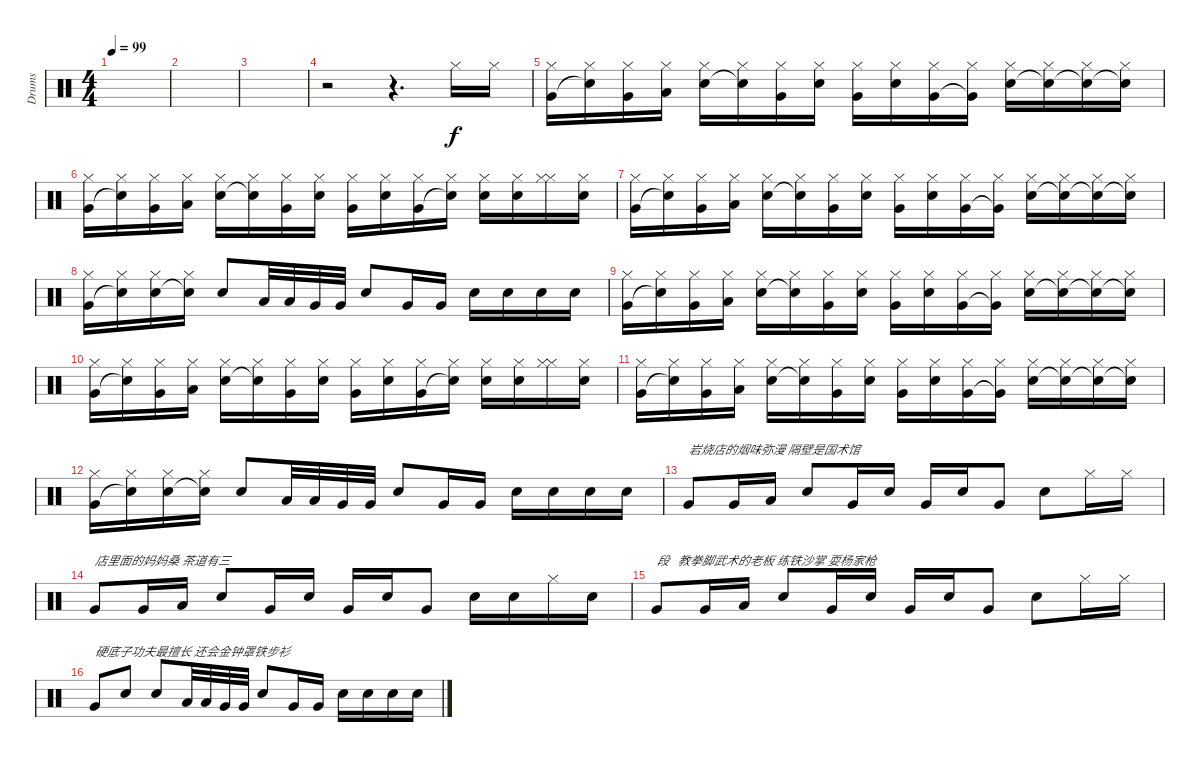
\track ("Drums" "Drums") {instrument percussion}
\staff {score}
\articulation defaults
\ts (4 4)
\tempo 99
\clef neutral
\ks c
|
|
|
r.2 r.4{d} "Hi-Hat (closed)".16 "Hi-Hat (closed)".16 |
("Hi-Hat (closed)" "Very Low Tom (hit)").16 ("Hi-Hat (closed)" "Snare (hit)"{t}).16 ("Hi-Hat (closed)" "Very Low Tom (hit)").16 ("Hi-Hat (closed)" "Low Floor Tom (hit)").16 ("Hi-Hat (closed)" "Snare (hit) 2").16 ("Hi-Hat (closed)" "Snare (hit)"{t}).16 ("Hi-Hat (closed)" "Very Low Tom (hit)").16 ("Hi-Hat (closed)" "Snare (hit) 2").16 ("Hi-Hat (closed)" "Very Low Tom (hit)").16 ("Hi-Hat (closed)" "Snare (hit) 2").16 ("Hi-Hat (closed)" "Very Low Tom (hit)").16 ("Hi-Hat (closed)" "Very Low Tom (hit)"{t}).16 ("Hi-Hat (closed)" "Snare (hit) 2").16 ("Hi-Hat (closed)" "Snare (hit)"{t}).16 ("Hi-Hat (closed)" "Snare (hit)"{t}).16 ("Hi-Hat (closed)" "Snare (hit)"{t}).16 |
("Hi-Hat (closed)" "Very Low Tom (hit)").16 ("Hi-Hat (closed)" "Snare (hit)"{t}).16 ("Hi-Hat (closed)" "Very Low Tom (hit)").16 ("Hi-Hat (closed)" "Low Floor Tom (hit)").16 ("Hi-Hat (closed)" "Snare (hit) 2").16 ("Hi-Hat (closed)" "Snare (hit)"{t}).16 ("Hi-Hat (closed)" "Very Low Tom (hit)").16 ("Hi-Hat (closed)" "Snare (hit) 2").16 ("Hi-Hat (closed)" "Very Low Tom (hit)").16 ("Hi-Hat (closed)" "Snare (hit) 2").16 ("Hi-Hat (closed)" "Very Low Tom (hit)").16 ("Hi-Hat (closed)" "Snare (hit)"{t}).16 ("Hi-Hat (closed)" "Snare (hit) 2").16 ("Hi-Hat (closed)" "Snare (hit) 2").16 ("Hi-Hat (closed)" "Hi-Hat (closed)").16 ("Hi-Hat (closed)" "Snare (hit) 2").16 |
("Hi-Hat (closed)" "Very Low Tom (hit)").16 ("Hi-Hat (closed)" "Snare (hit)"{t}).16 ("Hi-Hat (closed)" "Very Low Tom (hit)").16 ("Hi-Hat (closed)" "Low Floor Tom (hit)").16 ("Hi-Hat (closed)" "Snare (hit) 2").16 ("Hi-Hat (closed)" "Snare (hit)"{t}).16 ("Hi-Hat (closed)" "Very Low Tom (hit)").16 ("Hi-Hat (closed)" "Snare (hit) 2").16 ("Hi-Hat (closed)" "Very Low Tom (hit)").16 ("Hi-Hat (closed)" "Snare (hit) 2").16 ("Hi-Hat (closed)" "Very Low Tom (hit)").16 ("Hi-Hat (closed)" "Very Low Tom (hit)"{t}).16 ("Hi-Hat (closed)" "Snare (hit) 2").16 ("Hi-Hat (closed)" "Snare (hit)"{t}).16 ("Hi-Hat (closed)" "Snare (hit)"{t}).16 ("Hi-Hat (closed)" "Snare (hit)"{t}).16 |
("Hi-Hat (closed)" "Very Low Tom (hit)").16 ("Hi-Hat (closed)" "Snare (hit)"{t}).16 ("Hi-Hat (closed)" "Snare (hit) 2").16 ("Hi-Hat (closed)" "Snare (hit)"{t}).16 "Snare (hit) 2".8 "Low Tom (hit)".32 "Low Tom (hit)".32 "Very Low Tom (hit)".32 "Very Low Tom (hit)".32 "Snare (hit) 2".8 "Very Low Tom (hit)".16 "Very Low Tom (hit)".16 "Snare (hit) 2".16 "Snare (hit) 2".16 "Snare (hit) 2".16 "Snare (hit) 2".16 |
("Hi-Hat (closed)" "Very Low Tom (hit)").16 ("Hi-Hat (closed)" "Snare (hit)"{t}).16 ("Hi-Hat (closed)" "Very Low Tom (hit)").16 ("Hi-Hat (closed)" "Low Floor Tom (hit)").16 ("Hi-Hat (closed)" "Snare (hit) 2").16 ("Hi-Hat (closed)" "Snare (hit)"{t}).16 ("Hi-Hat (closed)" "Very Low Tom (hit)").16 ("Hi-Hat (closed)" "Snare (hit) 2").16 ("Hi-Hat (closed)" "Very Low Tom (hit)").16 ("Hi-Hat (closed)" "Snare (hit) 2").16 ("Hi-Hat (closed)" "Very Low Tom (hit)").16 ("Hi-Hat (closed)" "Very Low Tom (hit)"{t}).16 ("Hi-Hat (closed)" "Snare (hit) 2").16 ("Hi-Hat (closed)" "Snare (hit)"{t}).16 ("Hi-Hat (closed)" "Snare (hit)"{t}).16 ("Hi-Hat (closed)" "Snare (hit)"{t}).16 |
("Hi-Hat (closed)" "Very Low Tom (hit)").16 ("Hi-Hat (closed)" "Snare (hit)"{t}).16 ("Hi-Hat (closed)" "Very Low Tom (hit)").16 ("Hi-Hat (closed)" "Low Floor Tom (hit)").16 ("Hi-Hat (closed)" "Snare (hit) 2").16 ("Hi-Hat (closed)" "Snare (hit)"{t}).16 ("Hi-Hat (closed)" "Very Low Tom (hit)").16 ("Hi-Hat (closed)" "Snare (hit) 2").16 ("Hi-Hat (closed)" "Very Low Tom (hit)").16 ("Hi-Hat (closed)" "Snare (hit) 2").16 ("Hi-Hat (closed)" "Very Low Tom (hit)").16 ("Hi-Hat (closed)" "Snare (hit)"{t}).16 ("Hi-Hat (closed)" "Snare (hit) 2").16 ("Hi-Hat (closed)" "Snare (hit) 2").16 ("Hi-Hat (closed)" "Hi-Hat (closed)").16 ("Hi-Hat (closed)" "Snare (hit) 2").16 |
("Hi-Hat (closed)" "Very Low Tom (hit)").16 ("Hi-Hat (closed)" "Snare (hit)"{t}).16 ("Hi-Hat (closed)" "Very Low Tom (hit)").16 ("Hi-Hat (closed)" "Low Floor Tom (hit)").16 ("Hi-Hat (closed)" "Snare (hit) 2").16 ("Hi-Hat (closed)" "Snare (hit)"{t}).16 ("Hi-Hat (closed)" "Very Low Tom (hit)").16 ("Hi-Hat (closed)" "Snare (hit) 2").16 ("Hi-Hat (closed)" "Very Low Tom (hit)").16 ("Hi-Hat (closed)" "Snare (hit) 2").16 ("Hi-Hat (closed)" "Very Low Tom (hit)").16 ("Hi-Hat (closed)" "Very Low Tom (hit)"{t}).16 ("Hi-Hat (closed)" "Snare (hit) 2").16 ("Hi-Hat (closed)" "Snare (hit)"{t}).16 ("Hi-Hat (closed)" "Snare (hit)"{t}).16 ("Hi-Hat (closed)" "Snare (hit)"{t}).16 |
("Hi-Hat (closed)" "Very Low Tom (hit)").16 ("Hi-Hat (closed)" "Snare (hit)"{t}).16 ("Hi-Hat (closed)" "Snare (hit) 2").16 ("Hi-Hat (closed)" "Snare (hit)"{t}).16 "Snare (hit) 2".8 "Low Tom (hit)".32 "Low Tom (hit)".32 "Very Low Tom (hit)".32 "Very Low Tom (hit)".32 "Snare (hit) 2".8 "Very Low Tom (hit)".16 "Very Low Tom (hit)".16 "Snare (hit) 2".16 "Snare (hit) 2".16 "Snare (hit) 2".16 "Snare (hit) 2".16 |
"Very Low Tom (hit)".8{txt "岩烧店的烟味弥漫 隔壁是国术馆"} "Very Low Tom (hit)".16 "Low Floor Tom (hit)".16 "Snare (hit) 2".8 "Very Low Tom (hit)".16 "Snare (hit) 2".16 "Very Low Tom (hit)".16 "Snare (hit) 2".16 "Very Low Tom (hit)".8 "Snare (hit) 2".8 "Hi-Hat (closed)".16 "Hi-Hat (closed)".16 |
"Very Low Tom (hit)".8{txt "店里面的妈妈桑 茶道有三"} "Very Low Tom (hit)".16 "Low Floor Tom (hit)".16 "Snare (hit) 2".8 "Very Low Tom (hit)".16 "Snare (hit) 2".16 "Very Low Tom (hit)".16 "Snare (hit) 2".16 "Very Low Tom (hit)".8 "Snare (hit) 2".16 "Snare (hit) 2".16 "Hi-Hat (closed)".16 "Snare (hit) 2".16 |
"Very Low Tom (hit)".8{txt "段   教拳脚武术的老板 练铁沙掌 耍杨家枪"} "Very Low Tom (hit)".16 "Low Floor Tom (hit)".16 "Snare (hit) 2".8 "Very Low Tom (hit)".16 "Snare (hit) 2".16 "Very Low Tom (hit)".16 "Snare (hit) 2".16 "Very Low Tom (hit)".8 "Snare (hit) 2".8 "Hi-Hat (closed)".16 "Hi-Hat (closed)".16 |
"Very Low Tom (hit)".8{txt "硬底子功夫最擅长 还会金钟罩铁步衫"} "Snare (hit) 2".8 "Snare (hit) 2".8 "Low Tom (hit)".32 "Low Tom (hit)".32 "Very Low Tom (hit)".32 "Very Low Tom (hit)".32 "Snare (hit) 2".8 "Very Low Tom (hit)".16 "Very Low Tom (hit)".16 "Snare (hit) 2".16 "Snare (hit) 2".16 "Snare (hit) 2".16 "Snare (hit) 2".16
